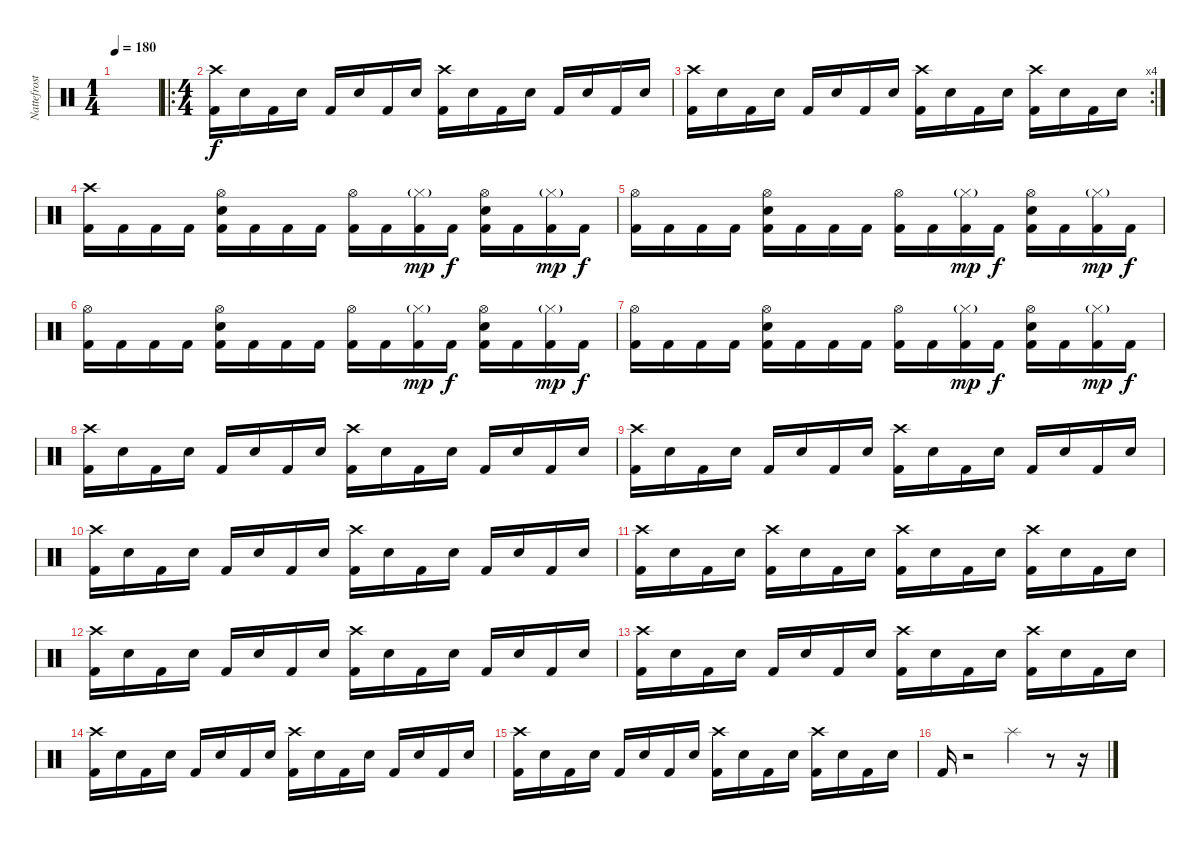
\track ("Nattefrost" "Nattefrost") {instrument percussion}
\staff {score}
\articulation defaults
\ts (1 4)
\tempo 180
\clef neutral
\ks c
|
\ro
\ts (4 4)
("Crash high (hit)" "Kick (hit) 2").16 "Electric Snare (hit)".16 "Kick (hit) 2".16 "Electric Snare (hit)".16 "Kick (hit) 2".16 "Electric Snare (hit)".16 "Kick (hit) 2".16 "Electric Snare (hit)".16 ("Crash high (hit)" "Kick (hit) 2").16 "Electric Snare (hit)".16 "Kick (hit) 2".16 "Electric Snare (hit)".16 "Kick (hit) 2".16 "Electric Snare (hit)".16 "Kick (hit) 2".16 "Electric Snare (hit)".16 |
\rc 4
("Crash high (hit)" "Kick (hit) 2").16 "Electric Snare (hit)".16 "Kick (hit) 2".16 "Electric Snare (hit)".16 "Kick (hit) 2".16 "Electric Snare (hit)".16 "Kick (hit) 2".16 "Electric Snare (hit)".16 ("Crash high (hit)" "Kick (hit) 2").16 "Electric Snare (hit)".16 "Kick (hit) 2".16 "Electric Snare (hit)".16 ("Crash high (hit)" "Kick (hit) 2").16 "Electric Snare (hit)".16 "Kick (hit) 2".16 "Electric Snare (hit)".16 |
("Crash high (hit)" "Kick (hit) 2").16 "Kick (hit) 2".16 "Kick (hit) 2".16 "Kick (hit) 2".16 ("Hi-Hat (open)" "Electric Snare (hit)" "Kick (hit) 2").16 "Kick (hit) 2".16 "Kick (hit) 2".16 "Kick (hit) 2".16 ("Hi-Hat (open)" "Kick (hit) 2").16 "Kick (hit) 2".16 ("Hi-Hat (closed)"{g} "Kick (hit) 2").16{dy mp} "Kick (hit) 2".16{dy f} ("Hi-Hat (open)" "Electric Snare (hit)" "Kick (hit) 2").16 "Kick (hit) 2".16 ("Hi-Hat (closed)"{g} "Kick (hit) 2").16{dy mp} "Kick (hit) 2".16{dy f} |
("Hi-Hat (open)" "Kick (hit) 2").16 "Kick (hit) 2".16 "Kick (hit) 2".16 "Kick (hit) 2".16 ("Hi-Hat (open)" "Electric Snare (hit)" "Kick (hit) 2").16 "Kick (hit) 2".16 "Kick (hit) 2".16 "Kick (hit) 2".16 ("Hi-Hat (open)" "Kick (hit) 2").16 "Kick (hit) 2".16 ("Hi-Hat (closed)"{g} "Kick (hit) 2").16{dy mp} "Kick (hit) 2".16{dy f} ("Hi-Hat (open)" "Electric Snare (hit)" "Kick (hit) 2").16 "Kick (hit) 2".16 ("Hi-Hat (closed)"{g} "Kick (hit) 2").16{dy mp} "Kick (hit) 2".16{dy f} |
("Hi-Hat (open)" "Kick (hit) 2").16 "Kick (hit) 2".16 "Kick (hit) 2".16 "Kick (hit) 2".16 ("Hi-Hat (open)" "Electric Snare (hit)" "Kick (hit) 2").16 "Kick (hit) 2".16 "Kick (hit) 2".16 "Kick (hit) 2".16 ("Hi-Hat (open)" "Kick (hit) 2").16 "Kick (hit) 2".16 ("Hi-Hat (closed)"{g} "Kick (hit) 2").16{dy mp} "Kick (hit) 2".16{dy f} ("Hi-Hat (open)" "Electric Snare (hit)" "Kick (hit) 2").16 "Kick (hit) 2".16 ("Hi-Hat (closed)"{g} "Kick (hit) 2").16{dy mp} "Kick (hit) 2".16{dy f} |
("Hi-Hat (open)" "Kick (hit) 2").16 "Kick (hit) 2".16 "Kick (hit) 2".16 "Kick (hit) 2".16 ("Hi-Hat (open)" "Electric Snare (hit)" "Kick (hit) 2").16 "Kick (hit) 2".16 "Kick (hit) 2".16 "Kick (hit) 2".16 ("Hi-Hat (open)" "Kick (hit) 2").16 "Kick (hit) 2".16 ("Hi-Hat (closed)"{g} "Kick (hit) 2").16{dy mp} "Kick (hit) 2".16{dy f} ("Hi-Hat (open)" "Electric Snare (hit)" "Kick (hit) 2").16 "Kick (hit) 2".16 ("Hi-Hat (closed)"{g} "Kick (hit) 2").16{dy mp} "Kick (hit) 2".16{dy f} |
("Crash high (hit)" "Kick (hit) 2").16 "Electric Snare (hit)".16 "Kick (hit) 2".16 "Electric Snare (hit)".16 "Kick (hit) 2".16 "Electric Snare (hit)".16 "Kick (hit) 2".16 "Electric Snare (hit)".16 ("Crash high (hit)" "Kick (hit) 2").16 "Electric Snare (hit)".16 "Kick (hit) 2".16 "Electric Snare (hit)".16 "Kick (hit) 2".16 "Electric Snare (hit)".16 "Kick (hit) 2".16 "Electric Snare (hit)".16 |
("Crash high (hit)" "Kick (hit) 2").16 "Electric Snare (hit)".16 "Kick (hit) 2".16 "Electric Snare (hit)".16 "Kick (hit) 2".16 "Electric Snare (hit)".16 "Kick (hit) 2".16 "Electric Snare (hit)".16 ("Crash high (hit)" "Kick (hit) 2").16 "Electric Snare (hit)".16 "Kick (hit) 2".16 "Electric Snare (hit)".16 "Kick (hit) 2".16 "Electric Snare (hit)".16 "Kick (hit) 2".16 "Electric Snare (hit)".16 |
("Crash high (hit)" "Kick (hit) 2").16 "Electric Snare (hit)".16 "Kick (hit) 2".16 "Electric Snare (hit)".16 "Kick (hit) 2".16 "Electric Snare (hit)".16 "Kick (hit) 2".16 "Electric Snare (hit)".16 ("Crash high (hit)" "Kick (hit) 2").16 "Electric Snare (hit)".16 "Kick (hit) 2".16 "Electric Snare (hit)".16 "Kick (hit) 2".16 "Electric Snare (hit)".16 "Kick (hit) 2".16 "Electric Snare (hit)".16 |
("Crash high (hit)" "Kick (hit) 2").16 "Electric Snare (hit)".16 "Kick (hit) 2".16 "Electric Snare (hit)".16 ("Crash high (hit)" "Kick (hit) 2").16 "Electric Snare (hit)".16 "Kick (hit) 2".16 "Electric Snare (hit)".16 ("Crash high (hit)" "Kick (hit) 2").16 "Electric Snare (hit)".16 "Kick (hit) 2".16 "Electric Snare (hit)".16 ("Crash high (hit)" "Kick (hit) 2").16 "Electric Snare (hit)".16 "Kick (hit) 2".16 "Electric Snare (hit)".16 |
("Crash high (hit)" "Kick (hit) 2").16 "Electric Snare (hit)".16 "Kick (hit) 2".16 "Electric Snare (hit)".16 "Kick (hit) 2".16 "Electric Snare (hit)".16 "Kick (hit) 2".16 "Electric Snare (hit)".16 ("Crash high (hit)" "Kick (hit) 2").16 "Electric Snare (hit)".16 "Kick (hit) 2".16 "Electric Snare (hit)".16 "Kick (hit) 2".16 "Electric Snare (hit)".16 "Kick (hit) 2".16 "Electric Snare (hit)".16 |
("Crash high (hit)" "Kick (hit) 2").16 "Electric Snare (hit)".16 "Kick (hit) 2".16 "Electric Snare (hit)".16 "Kick (hit) 2".16 "Electric Snare (hit)".16 "Kick (hit) 2".16 "Electric Snare (hit)".16 ("Crash high (hit)" "Kick (hit) 2").16 "Electric Snare (hit)".16 "Kick (hit) 2".16 "Electric Snare (hit)".16 ("Crash high (hit)" "Kick (hit) 2").16 "Electric Snare (hit)".16 "Kick (hit) 2".16 "Electric Snare (hit)".16 |
("Crash high (hit)" "Kick (hit) 2").16 "Electric Snare (hit)".16 "Kick (hit) 2".16 "Electric Snare (hit)".16 "Kick (hit) 2".16 "Electric Snare (hit)".16 "Kick (hit) 2".16 "Electric Snare (hit)".16 ("Crash high (hit)" "Kick (hit) 2").16 "Electric Snare (hit)".16 "Kick (hit) 2".16 "Electric Snare (hit)".16 "Kick (hit) 2".16 "Electric Snare (hit)".16 "Kick (hit) 2".16 "Electric Snare (hit)".16 |
("Crash high (hit)" "Kick (hit) 2").16 "Electric Snare (hit)".16 "Kick (hit) 2".16 "Electric Snare (hit)".16 "Kick (hit) 2".16 "Electric Snare (hit)".16 "Kick (hit) 2".16 "Electric Snare (hit)".16 ("Crash high (hit)" "Kick (hit) 2").16 "Electric Snare (hit)".16 "Kick (hit) 2".16 "Electric Snare (hit)".16 ("Crash high (hit)" "Kick (hit) 2").16 "Electric Snare (hit)".16 "Kick (hit) 2".16 "Electric Snare (hit)".16 |
"Kick (hit) 2".16 r.2 "Splash (hit)".4 r.8 r.16
